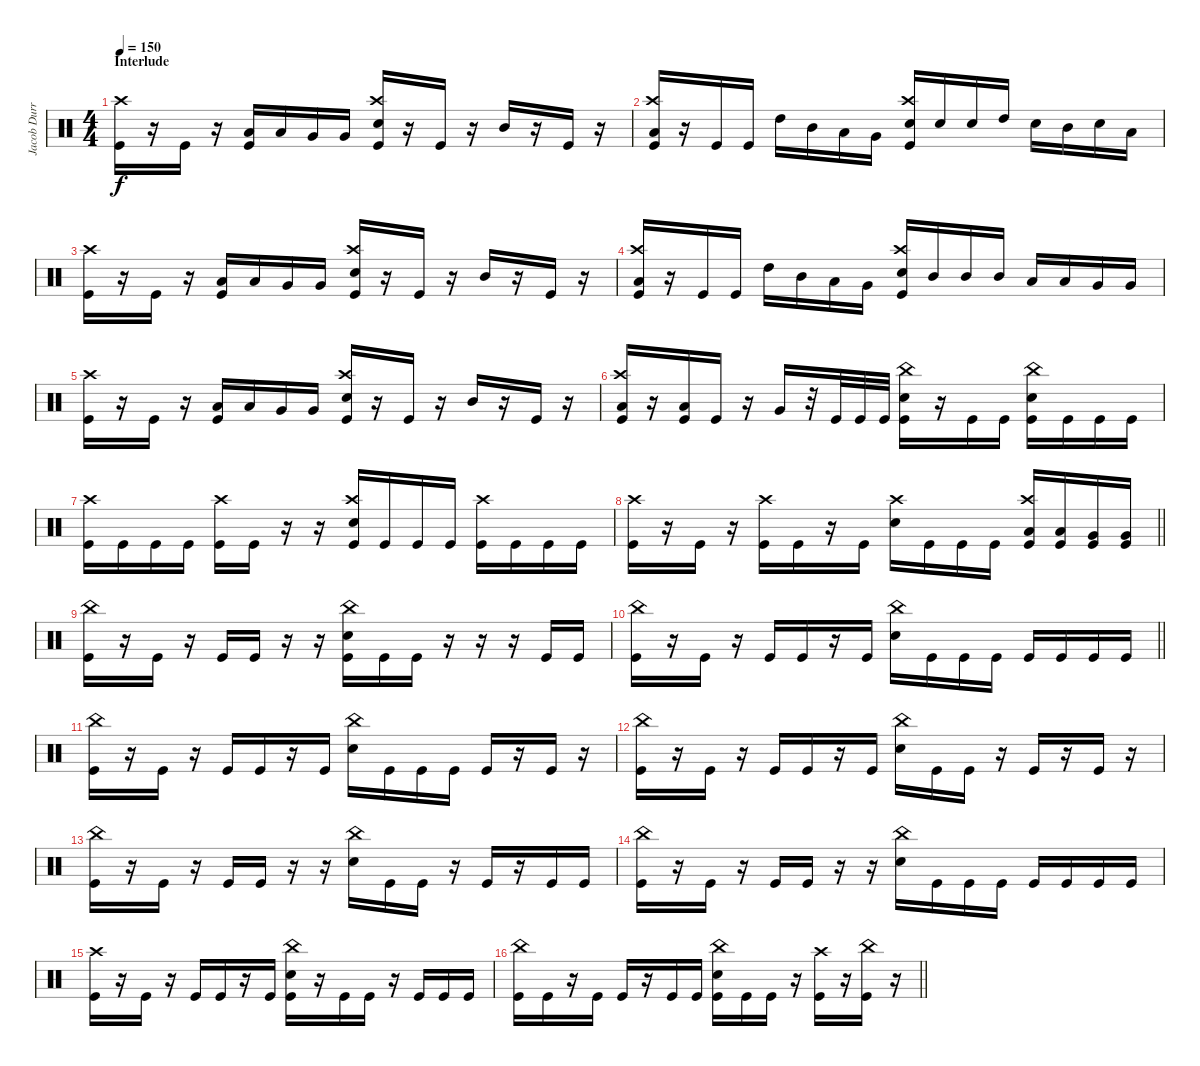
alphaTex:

\track ("Jacob Durret" "Jacob Durr") {instrument percussion}
\staff {score}
\articulation defaults
\ts (4 4)
\section ("" "Interlude")
\tempo 150
\clef neutral
\ks c
("Kick (hit)" "Crash high (hit)").16{dy f} r.16 "Kick (hit)".16 r.16 ("Kick (hit)" "Low Tom (hit)").16 "Low Tom (hit)".16 "Very Low Tom (hit)".16 "Very Low Tom (hit)".16 ("Kick (hit)" "Crash high (hit)" "Snare (hit) 2").16 r.16 "Kick (hit)".16 r.16 "Mid Tom (hit)".16 r.16 "Kick (hit)".16 r.16 |
("Kick (hit)" "Crash high (hit)" "Low Tom (hit)").16 r.16 "Kick (hit)".16 "Kick (hit)".16 "High Tom (hit)".16 "Mid Tom (hit)".16 "Low Tom (hit)".16 "Very Low Tom (hit)".16 ("Kick (hit)" "Crash high (hit)" "Snare (hit) 2").16 "Snare (hit) 2".16 "Snare (hit) 2".16 "High Tom (hit)".16 "Snare (hit) 2".16 "Mid Tom (hit)".16 "Snare (hit) 2".16 "Low Tom (hit)".16 |
("Kick (hit)" "Crash high (hit)").16 r.16 "Kick (hit)".16 r.16 ("Kick (hit)" "Low Tom (hit)").16 "Low Tom (hit)".16 "Very Low Tom (hit)".16 "Very Low Tom (hit)".16 ("Kick (hit)" "Crash high (hit)" "Snare (hit) 2").16 r.16 "Kick (hit)".16 r.16 "Mid Tom (hit)".16 r.16 "Kick (hit)".16 r.16 |
("Kick (hit)" "Crash high (hit)" "Low Tom (hit)").16 r.16 "Kick (hit)".16 "Kick (hit)".16 "High Tom (hit)".16 "Mid Tom (hit)".16 "Low Tom (hit)".16 "Very Low Tom (hit)".16 ("Kick (hit)" "Crash high (hit)" "Snare (hit) 2").16 "Mid Tom (hit)".16 "Mid Tom (hit)".16 "Mid Tom (hit)".16 "Low Tom (hit)".16 "Low Tom (hit)".16 "Very Low Tom (hit)".16 "Very Low Tom (hit)".16 |
("Kick (hit)" "Crash high (hit)").16 r.16 "Kick (hit)".16 r.16 ("Kick (hit)" "Low Tom (hit)").16 "Low Tom (hit)".16 "Very Low Tom (hit)".16 "Very Low Tom (hit)".16 ("Kick (hit)" "Crash high (hit)" "Snare (hit) 2").16 r.16 "Kick (hit)".16 r.16 "Mid Tom (hit)".16 r.16 "Kick (hit)".16 r.16 |
("Kick (hit)" "Crash high (hit)" "Low Tom (hit)").16 r.16 ("Kick (hit)" "Low Tom (hit)").16 "Kick (hit)".16 r.16 "Very Low Tom (hit)".16 r.32 "Kick (hit)".32 "Kick (hit)".32 "Kick (hit)".32 ("Kick (hit)" "China (hit)" "Snare (hit) 2").16 r.16 "Kick (hit)".16 "Kick (hit)".16 ("China (hit)" "Snare (hit) 2" "Kick (hit)").16 "Kick (hit)".16 "Kick (hit)".16 "Kick (hit)".16 |
("Kick (hit)" "Crash high (hit)").16 "Kick (hit)".16 "Kick (hit)".16 "Kick (hit)".16 ("Kick (hit)" "Crash high (hit)").16 "Kick (hit)".16 r.16 r.16 ("Kick (hit)" "Crash high (hit)" "Snare (hit) 2").16 "Kick (hit)".16 "Kick (hit)".16 "Kick (hit)".16 ("Kick (hit)" "Crash high (hit)").16 "Kick (hit)".16 "Kick (hit)".16 "Kick (hit)".16 |
\barLineRight lightlight
("Kick (hit)" "Crash high (hit)").16 r.16 "Kick (hit)".16 r.16 ("Kick (hit)" "Crash high (hit)").16 "Kick (hit)".16 r.16 "Kick (hit)".16 ("Crash high (hit)" "Snare (hit) 2").16 "Kick (hit)".16 "Kick (hit)".16 "Kick (hit)".16 ("Kick (hit)" "Crash high (hit)" "Low Tom (hit)").16 ("Kick (hit)" "Low Tom (hit)").16 ("Kick (hit)" "Very Low Tom (hit)").16 ("Kick (hit)" "Very Low Tom (hit)").16 |
("Kick (hit)" "China (hit)").16 r.16 "Kick (hit)".16 r.16 "Kick (hit)".16 "Kick (hit)".16 r.16 r.16 ("Kick (hit)" "China (hit)" "Snare (hit) 2").16 "Kick (hit)".16 "Kick (hit)".16 r.16 r.16 r.16 "Kick (hit)".16 "Kick (hit)".16 |
\barLineRight lightlight
("Kick (hit)" "China (hit)").16 r.16 "Kick (hit)".16 r.16 "Kick (hit)".16 "Kick (hit)".16 r.16 "Kick (hit)".16 ("China (hit)" "Snare (hit) 2").16 "Kick (hit)".16 "Kick (hit)".16 "Kick (hit)".16 "Kick (hit)".16 "Kick (hit)".16 "Kick (hit)".16 "Kick (hit)".16 |
("Kick (hit)" "China (hit)").16 r.16 "Kick (hit)".16 r.16 "Kick (hit)".16 "Kick (hit)".16 r.16 "Kick (hit)".16 ("China (hit)" "Snare (hit) 2").16 "Kick (hit)".16 "Kick (hit)".16 "Kick (hit)".16 "Kick (hit)".16 r.16 "Kick (hit)".16 r.16 |
("Kick (hit)" "China (hit)").16 r.16 "Kick (hit)".16 r.16 "Kick (hit)".16 "Kick (hit)".16 r.16 "Kick (hit)".16 ("China (hit)" "Snare (hit) 2").16 "Kick (hit)".16 "Kick (hit)".16 r.16 "Kick (hit)".16 r.16 "Kick (hit)".16 r.16 |
("Kick (hit)" "China (hit)").16 r.16 "Kick (hit)".16 r.16 "Kick (hit)".16 "Kick (hit)".16 r.16 r.16 ("China (hit)" "Snare (hit) 2").16 "Kick (hit)".16 "Kick (hit)".16 r.16 "Kick (hit)".16 r.16 "Kick (hit)".16 "Kick (hit)".16 |
("Kick (hit)" "China (hit)").16 r.16 "Kick (hit)".16 r.16 "Kick (hit)".16 "Kick (hit)".16 r.16 r.16 ("China (hit)" "Snare (hit) 2").16 "Kick (hit)".16 "Kick (hit)".16 "Kick (hit)".16 "Kick (hit)".16 "Kick (hit)".16 "Kick (hit)".16 "Kick (hit)".16 |
("Kick (hit)" "Crash high (hit)").16 r.16 "Kick (hit)".16 r.16 "Kick (hit)".16 "Kick (hit)".16 r.16 "Kick (hit)".16 ("Kick (hit)" "Snare (hit) 2" "China (hit)").16 r.16 "Kick (hit)".16 "Kick (hit)".16 r.16 "Kick (hit)".16 "Kick (hit)".16 "Kick (hit)".16 |
\barLineRight lightlight
("China (hit)" "Kick (hit)").16 "Kick (hit)".16 r.16 "Kick (hit)".16 "Kick (hit)".16 r.16 "Kick (hit)".16 "Kick (hit)".16 ("Kick (hit)" "China (hit)" "Snare (hit) 2").16 "Kick (hit)".16 "Kick (hit)".16 r.16 ("Kick (hit)" "Crash high (hit)").16 r.16 ("Kick (hit)" "China (hit)").16 r.16
